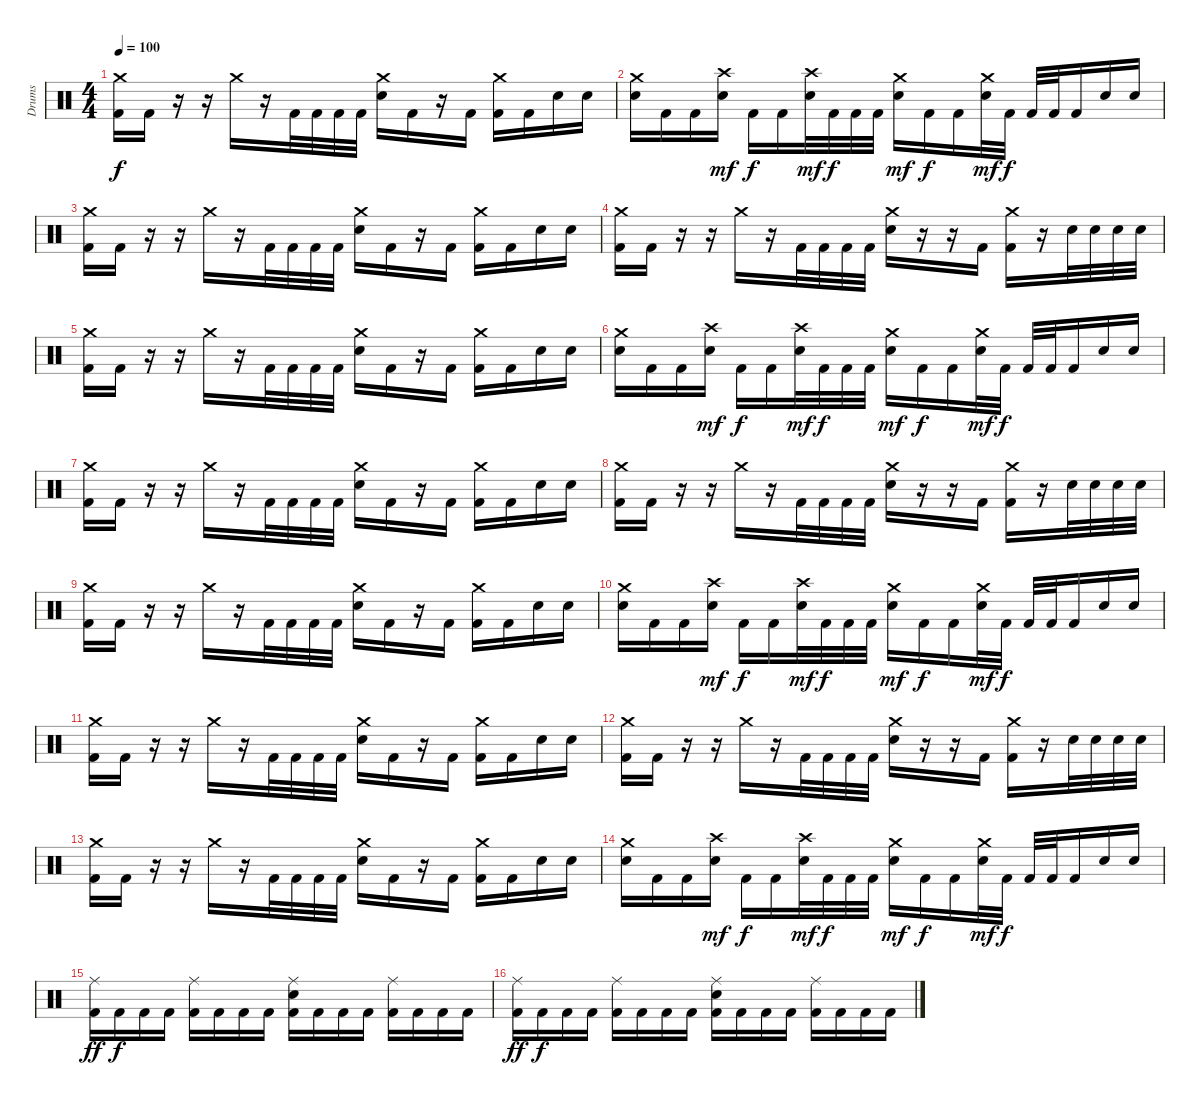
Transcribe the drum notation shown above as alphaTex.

\track ("Drums" "Drums") {instrument percussion}
\staff {score}
\articulation defaults
\ts (4 4)
\tempo 100
\clef neutral
\ks c
("Kick (hit) 2" "Crash medium (hit)").16{dy f} "Kick (hit) 2".16 r.16 r.16 "Crash medium (hit)".16 r.16 "Kick (hit) 2".32 "Kick (hit) 2".32 "Kick (hit) 2".32 "Kick (hit) 2".32 ("Electric Snare (hit)" "Crash medium (hit)").16 "Kick (hit) 2".16 r.16 "Kick (hit) 2".16 ("Kick (hit) 2" "Crash medium (hit)").16 "Kick (hit) 2".16 "Electric Snare (hit)".16 "Electric Snare (hit)".16 |
("Electric Snare (hit)" "Crash medium (hit)").16 "Kick (hit) 2".16 "Kick (hit) 2".16 ("Electric Snare (hit)" "Crash high (hit)").16{dy mf} "Kick (hit) 2".16{dy f} "Kick (hit) 2".16 ("Electric Snare (hit)" "Crash high (hit)").32{dy mf} "Kick (hit) 2".32{dy f} "Kick (hit) 2".32 "Kick (hit) 2".32 ("Electric Snare (hit)" "Crash medium (hit)").16{dy mf} "Kick (hit) 2".16{dy f} "Kick (hit) 2".16 ("Electric Snare (hit)" "Crash medium (hit)").32{dy mf} "Kick (hit) 2".32{dy f} "Kick (hit) 2".32 "Kick (hit) 2".32 "Kick (hit) 2".16 "Electric Snare (hit)".16 "Electric Snare (hit)".16 |
("Kick (hit) 2" "Crash medium (hit)").16 "Kick (hit) 2".16 r.16 r.16 "Crash medium (hit)".16 r.16 "Kick (hit) 2".32 "Kick (hit) 2".32 "Kick (hit) 2".32 "Kick (hit) 2".32 ("Electric Snare (hit)" "Crash medium (hit)").16 "Kick (hit) 2".16 r.16 "Kick (hit) 2".16 ("Kick (hit) 2" "Crash medium (hit)").16 "Kick (hit) 2".16 "Electric Snare (hit)".16 "Electric Snare (hit)".16 |
("Kick (hit) 2" "Crash medium (hit)").16 "Kick (hit) 2".16 r.16 r.16 "Crash medium (hit)".16 r.16 "Kick (hit) 2".32 "Kick (hit) 2".32 "Kick (hit) 2".32 "Kick (hit) 2".32 ("Electric Snare (hit)" "Crash medium (hit)").16 r.16 r.16 "Kick (hit) 2".16 ("Kick (hit) 2" "Crash medium (hit)").16 r.16 "Electric Snare (hit)".32 "Electric Snare (hit)".32 "Electric Snare (hit)".32 "Electric Snare (hit)".32 |
("Kick (hit) 2" "Crash medium (hit)").16 "Kick (hit) 2".16 r.16 r.16 "Crash medium (hit)".16 r.16 "Kick (hit) 2".32 "Kick (hit) 2".32 "Kick (hit) 2".32 "Kick (hit) 2".32 ("Electric Snare (hit)" "Crash medium (hit)").16 "Kick (hit) 2".16 r.16 "Kick (hit) 2".16 ("Kick (hit) 2" "Crash medium (hit)").16 "Kick (hit) 2".16 "Electric Snare (hit)".16 "Electric Snare (hit)".16 |
("Electric Snare (hit)" "Crash medium (hit)").16 "Kick (hit) 2".16 "Kick (hit) 2".16 ("Electric Snare (hit)" "Crash high (hit)").16{dy mf} "Kick (hit) 2".16{dy f} "Kick (hit) 2".16 ("Electric Snare (hit)" "Crash high (hit)").32{dy mf} "Kick (hit) 2".32{dy f} "Kick (hit) 2".32 "Kick (hit) 2".32 ("Electric Snare (hit)" "Crash medium (hit)").16{dy mf} "Kick (hit) 2".16{dy f} "Kick (hit) 2".16 ("Electric Snare (hit)" "Crash medium (hit)").32{dy mf} "Kick (hit) 2".32{dy f} "Kick (hit) 2".32 "Kick (hit) 2".32 "Kick (hit) 2".16 "Electric Snare (hit)".16 "Electric Snare (hit)".16 |
("Kick (hit) 2" "Crash medium (hit)").16 "Kick (hit) 2".16 r.16 r.16 "Crash medium (hit)".16 r.16 "Kick (hit) 2".32 "Kick (hit) 2".32 "Kick (hit) 2".32 "Kick (hit) 2".32 ("Electric Snare (hit)" "Crash medium (hit)").16 "Kick (hit) 2".16 r.16 "Kick (hit) 2".16 ("Kick (hit) 2" "Crash medium (hit)").16 "Kick (hit) 2".16 "Electric Snare (hit)".16 "Electric Snare (hit)".16 |
("Kick (hit) 2" "Crash medium (hit)").16 "Kick (hit) 2".16 r.16 r.16 "Crash medium (hit)".16 r.16 "Kick (hit) 2".32 "Kick (hit) 2".32 "Kick (hit) 2".32 "Kick (hit) 2".32 ("Electric Snare (hit)" "Crash medium (hit)").16 r.16 r.16 "Kick (hit) 2".16 ("Kick (hit) 2" "Crash medium (hit)").16 r.16 "Electric Snare (hit)".32 "Electric Snare (hit)".32 "Electric Snare (hit)".32 "Electric Snare (hit)".32 |
("Kick (hit) 2" "Crash medium (hit)").16 "Kick (hit) 2".16 r.16 r.16 "Crash medium (hit)".16 r.16 "Kick (hit) 2".32 "Kick (hit) 2".32 "Kick (hit) 2".32 "Kick (hit) 2".32 ("Electric Snare (hit)" "Crash medium (hit)").16 "Kick (hit) 2".16 r.16 "Kick (hit) 2".16 ("Kick (hit) 2" "Crash medium (hit)").16 "Kick (hit) 2".16 "Electric Snare (hit)".16 "Electric Snare (hit)".16 |
("Electric Snare (hit)" "Crash medium (hit)").16 "Kick (hit) 2".16 "Kick (hit) 2".16 ("Electric Snare (hit)" "Crash high (hit)").16{dy mf} "Kick (hit) 2".16{dy f} "Kick (hit) 2".16 ("Electric Snare (hit)" "Crash high (hit)").32{dy mf} "Kick (hit) 2".32{dy f} "Kick (hit) 2".32 "Kick (hit) 2".32 ("Electric Snare (hit)" "Crash medium (hit)").16{dy mf} "Kick (hit) 2".16{dy f} "Kick (hit) 2".16 ("Electric Snare (hit)" "Crash medium (hit)").32{dy mf} "Kick (hit) 2".32{dy f} "Kick (hit) 2".32 "Kick (hit) 2".32 "Kick (hit) 2".16 "Electric Snare (hit)".16 "Electric Snare (hit)".16 |
("Kick (hit) 2" "Crash medium (hit)").16 "Kick (hit) 2".16 r.16 r.16 "Crash medium (hit)".16 r.16 "Kick (hit) 2".32 "Kick (hit) 2".32 "Kick (hit) 2".32 "Kick (hit) 2".32 ("Electric Snare (hit)" "Crash medium (hit)").16 "Kick (hit) 2".16 r.16 "Kick (hit) 2".16 ("Kick (hit) 2" "Crash medium (hit)").16 "Kick (hit) 2".16 "Electric Snare (hit)".16 "Electric Snare (hit)".16 |
("Kick (hit) 2" "Crash medium (hit)").16 "Kick (hit) 2".16 r.16 r.16 "Crash medium (hit)".16 r.16 "Kick (hit) 2".32 "Kick (hit) 2".32 "Kick (hit) 2".32 "Kick (hit) 2".32 ("Electric Snare (hit)" "Crash medium (hit)").16 r.16 r.16 "Kick (hit) 2".16 ("Kick (hit) 2" "Crash medium (hit)").16 r.16 "Electric Snare (hit)".32 "Electric Snare (hit)".32 "Electric Snare (hit)".32 "Electric Snare (hit)".32 |
("Kick (hit) 2" "Crash medium (hit)").16 "Kick (hit) 2".16 r.16 r.16 "Crash medium (hit)".16 r.16 "Kick (hit) 2".32 "Kick (hit) 2".32 "Kick (hit) 2".32 "Kick (hit) 2".32 ("Electric Snare (hit)" "Crash medium (hit)").16 "Kick (hit) 2".16 r.16 "Kick (hit) 2".16 ("Kick (hit) 2" "Crash medium (hit)").16 "Kick (hit) 2".16 "Electric Snare (hit)".16 "Electric Snare (hit)".16 |
("Electric Snare (hit)" "Crash medium (hit)").16 "Kick (hit) 2".16 "Kick (hit) 2".16 ("Electric Snare (hit)" "Crash high (hit)").16{dy mf} "Kick (hit) 2".16{dy f} "Kick (hit) 2".16 ("Electric Snare (hit)" "Crash high (hit)").32{dy mf} "Kick (hit) 2".32{dy f} "Kick (hit) 2".32 "Kick (hit) 2".32 ("Electric Snare (hit)" "Crash medium (hit)").16{dy mf} "Kick (hit) 2".16{dy f} "Kick (hit) 2".16 ("Electric Snare (hit)" "Crash medium (hit)").32{dy mf} "Kick (hit) 2".32{dy f} "Kick (hit) 2".32 "Kick (hit) 2".32 "Kick (hit) 2".16 "Electric Snare (hit)".16 "Electric Snare (hit)".16 |
("Kick (hit) 2" "Ride (middle)").16{dy ff} "Kick (hit) 2".16{dy f} "Kick (hit) 2".16 "Kick (hit) 2".16 ("Kick (hit) 2" "Ride (middle)").16 "Kick (hit) 2".16 "Kick (hit) 2".16 "Kick (hit) 2".16 ("Kick (hit) 2" "Electric Snare (hit)" "Ride (middle)").16 "Kick (hit) 2".16 "Kick (hit) 2".16 "Kick (hit) 2".16 ("Kick (hit) 2" "Ride (middle)").16 "Kick (hit) 2".16 "Kick (hit) 2".16 "Kick (hit) 2".16 |
("Kick (hit) 2" "Ride (middle)").16{dy ff} "Kick (hit) 2".16{dy f} "Kick (hit) 2".16 "Kick (hit) 2".16 ("Kick (hit) 2" "Ride (middle)").16 "Kick (hit) 2".16 "Kick (hit) 2".16 "Kick (hit) 2".16 ("Kick (hit) 2" "Electric Snare (hit)" "Ride (middle)").16 "Kick (hit) 2".16 "Kick (hit) 2".16 "Kick (hit) 2".16 ("Kick (hit) 2" "Ride (middle)").16 "Kick (hit) 2".16 "Kick (hit) 2".16 "Kick (hit) 2".16
